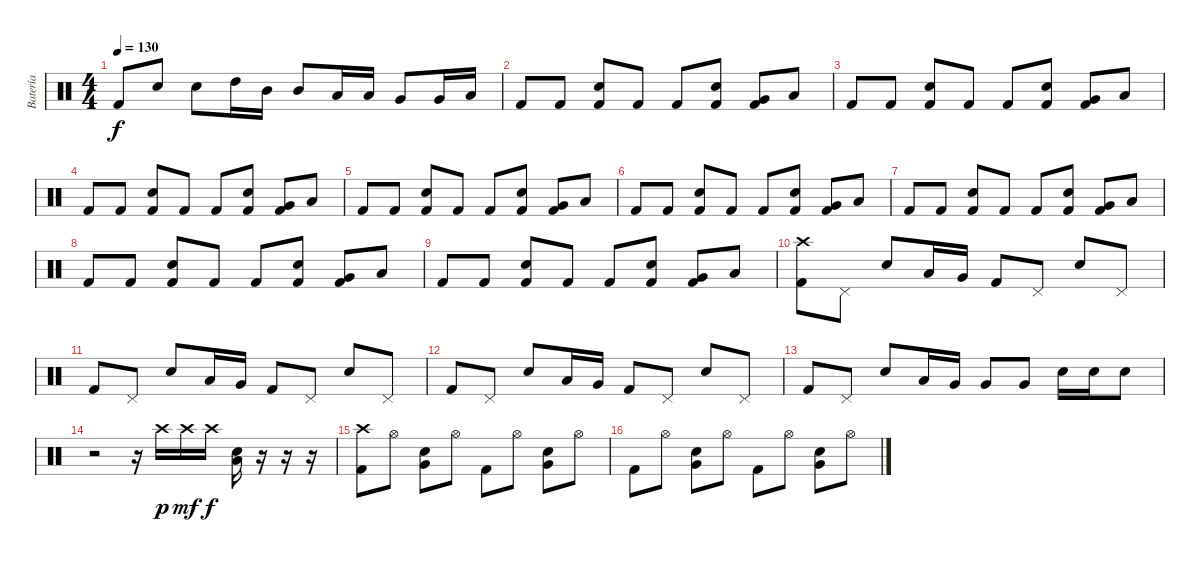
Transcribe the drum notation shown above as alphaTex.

\track ("Batería" "Batería") {instrument percussion}
\staff {score}
\articulation defaults
\ts (4 4)
\tempo 130
\clef neutral
\ks c "Kick (hit) 2".8{dy f} "Electric Snare (hit)".8 "Electric Snare (hit)".8 "High Tom (hit)".16 "Mid Tom (hit)".16 "Mid Tom (hit)".8 "Low Tom (hit)".16 "Low Tom (hit)".16 "Very Low Tom (hit)".8 "Very Low Tom (hit)".16 "Low Floor Tom (hit)".16
|
"Kick (hit) 2".8 "Kick (hit) 2".8 ("Kick (hit) 2" "Electric Snare (hit)").8 "Kick (hit) 2".8 "Kick (hit) 2".8 ("Kick (hit) 2" "Electric Snare (hit)").8 ("Kick (hit) 2" "Very Low Tom (hit)").8 "Low Floor Tom (hit)".8 |
"Kick (hit) 2".8 "Kick (hit) 2".8 ("Kick (hit) 2" "Electric Snare (hit)").8 "Kick (hit) 2".8 "Kick (hit) 2".8 ("Kick (hit) 2" "Electric Snare (hit)").8 ("Kick (hit) 2" "Very Low Tom (hit)").8 "Low Floor Tom (hit)".8 |
"Kick (hit) 2".8 "Kick (hit) 2".8 ("Kick (hit) 2" "Electric Snare (hit)").8 "Kick (hit) 2".8 "Kick (hit) 2".8 ("Kick (hit) 2" "Electric Snare (hit)").8 ("Kick (hit) 2" "Very Low Tom (hit)").8 "Low Floor Tom (hit)".8 |
"Kick (hit) 2".8 "Kick (hit) 2".8 ("Kick (hit) 2" "Electric Snare (hit)").8 "Kick (hit) 2".8 "Kick (hit) 2".8 ("Kick (hit) 2" "Electric Snare (hit)").8 ("Kick (hit) 2" "Very Low Tom (hit)").8 "Low Floor Tom (hit)".8 |
"Kick (hit) 2".8 "Kick (hit) 2".8 ("Kick (hit) 2" "Electric Snare (hit)").8 "Kick (hit) 2".8 "Kick (hit) 2".8 ("Kick (hit) 2" "Electric Snare (hit)").8 ("Kick (hit) 2" "Very Low Tom (hit)").8 "Low Floor Tom (hit)".8 |
"Kick (hit) 2".8 "Kick (hit) 2".8 ("Kick (hit) 2" "Electric Snare (hit)").8 "Kick (hit) 2".8 "Kick (hit) 2".8 ("Kick (hit) 2" "Electric Snare (hit)").8 ("Kick (hit) 2" "Very Low Tom (hit)").8 "Low Floor Tom (hit)".8 |
"Kick (hit) 2".8 "Kick (hit) 2".8 ("Kick (hit) 2" "Electric Snare (hit)").8 "Kick (hit) 2".8 "Kick (hit) 2".8 ("Kick (hit) 2" "Electric Snare (hit)").8 ("Kick (hit) 2" "Very Low Tom (hit)").8 "Low Floor Tom (hit)".8 |
"Kick (hit) 2".8 "Kick (hit) 2".8 ("Kick (hit) 2" "Electric Snare (hit)").8 "Kick (hit) 2".8 "Kick (hit) 2".8 ("Kick (hit) 2" "Electric Snare (hit)").8 ("Kick (hit) 2" "Very Low Tom (hit)").8 "Low Floor Tom (hit)".8 |
("Kick (hit) 2" "Crash high (hit)").8 "Pedal Hi-Hat (hit)".8 "Electric Snare (hit)".8 "Low Tom (hit)".16 "Very Low Tom (hit)".16 "Kick (hit) 2".8 "Pedal Hi-Hat (hit)".8 "Electric Snare (hit)".8 "Pedal Hi-Hat (hit)".8 |
"Kick (hit) 2".8 "Pedal Hi-Hat (hit)".8 "Electric Snare (hit)".8 "Low Tom (hit)".16 "Very Low Tom (hit)".16 "Kick (hit) 2".8 "Pedal Hi-Hat (hit)".8 "Electric Snare (hit)".8 "Pedal Hi-Hat (hit)".8 |
"Kick (hit) 2".8 "Pedal Hi-Hat (hit)".8 "Electric Snare (hit)".8 "Low Tom (hit)".16 "Very Low Tom (hit)".16 "Kick (hit) 2".8 "Pedal Hi-Hat (hit)".8 "Electric Snare (hit)".8 "Pedal Hi-Hat (hit)".8 |
"Kick (hit) 2".8 "Pedal Hi-Hat (hit)".8 "Electric Snare (hit)".8 "Low Tom (hit)".16 "Very Low Tom (hit)".16 "Very Low Tom (hit)".8 "Very Low Tom (hit)".8 "Electric Snare (hit)".16 "Electric Snare (hit)".16 "Electric Snare (hit)".8 |
r.2 r.16 "Crash high (hit)".16{dy p} "Crash high (hit)".16{dy mf} "Crash high (hit)".16{dy f} ("Low Tom (hit)" "Electric Snare (hit)").16 r.16 r.16 r.16 |
("Kick (hit) 2" "Crash high (hit)").8 "Hi-Hat (open)".8 ("Snare (hit) 2" "Very Low Tom (hit)").8 "Hi-Hat (open)".8 "Kick (hit) 2".8 "Hi-Hat (open)".8 ("Snare (hit) 2" "Very Low Tom (hit)").8 "Hi-Hat (open)".8 |
"Kick (hit) 2".8 "Hi-Hat (open)".8 ("Snare (hit) 2" "Very Low Tom (hit)").8 "Hi-Hat (open)".8 "Kick (hit) 2".8 "Hi-Hat (open)".8 ("Snare (hit) 2" "Very Low Tom (hit)").8 "Hi-Hat (open)".8
